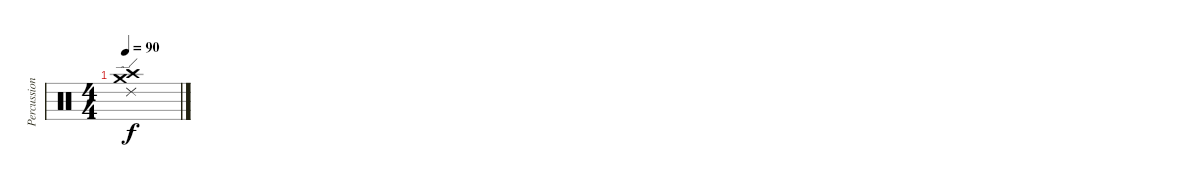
\track ("Percussion" "Percussion") {instrument percussion}
\staff {score}
\articulation defaults
\ts (4 4)
\tempo 90
\clef neutral
\ks c
("Crash medium (hit)" "Crash high (hit)" "Ride (edge) 2").1{dy f}
